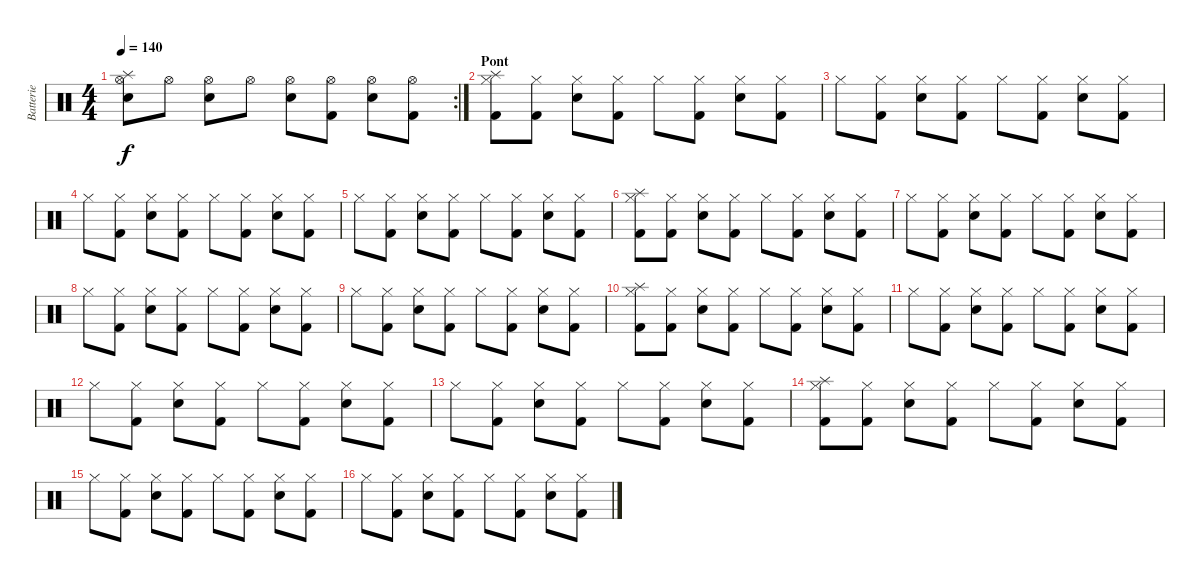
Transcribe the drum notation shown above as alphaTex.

\track ("Batterie" "Batterie") {instrument percussion}
\staff {score}
\articulation defaults
\rc 2
\ts (4 4)
\tempo 140
\clef neutral
\ks c
("Splash (hit)" "Hi-Hat (open)" "Snare (hit) 2").8{dy f} "Hi-Hat (open)".8 ("Hi-Hat (open)" "Snare (hit) 2").8 "Hi-Hat (open)".8 ("Hi-Hat (open)" "Snare (hit) 2").8 ("Hi-Hat (open)" "Kick (hit) 2").8 ("Hi-Hat (open)" "Snare (hit) 2").8 ("Hi-Hat (open)" "Kick (hit) 2").8 |
\section ("" "Pont")
("Splash (hit)" "Hi-Hat (closed)" "Kick (hit) 2").8 ("Hi-Hat (closed)" "Kick (hit) 2").8 ("Hi-Hat (closed)" "Snare (hit) 2").8 ("Hi-Hat (closed)" "Kick (hit) 2").8 "Hi-Hat (closed)".8 ("Hi-Hat (closed)" "Kick (hit) 2").8 ("Hi-Hat (closed)" "Snare (hit) 2").8 ("Hi-Hat (closed)" "Kick (hit) 2").8 |
"Hi-Hat (closed)".8 ("Hi-Hat (closed)" "Kick (hit) 2").8 ("Hi-Hat (closed)" "Snare (hit) 2").8 ("Hi-Hat (closed)" "Kick (hit) 2").8 "Hi-Hat (closed)".8 ("Hi-Hat (closed)" "Kick (hit) 2").8 ("Hi-Hat (closed)" "Snare (hit) 2").8 ("Hi-Hat (closed)" "Kick (hit) 2").8 |
"Hi-Hat (closed)".8 ("Hi-Hat (closed)" "Kick (hit) 2").8 ("Hi-Hat (closed)" "Snare (hit) 2").8 ("Hi-Hat (closed)" "Kick (hit) 2").8 "Hi-Hat (closed)".8 ("Hi-Hat (closed)" "Kick (hit) 2").8 ("Hi-Hat (closed)" "Snare (hit) 2").8 ("Hi-Hat (closed)" "Kick (hit) 2").8 |
"Hi-Hat (closed)".8 ("Hi-Hat (closed)" "Kick (hit) 2").8 ("Hi-Hat (closed)" "Snare (hit) 2").8 ("Hi-Hat (closed)" "Kick (hit) 2").8 "Hi-Hat (closed)".8 ("Hi-Hat (closed)" "Kick (hit) 2").8 ("Hi-Hat (closed)" "Snare (hit) 2").8 ("Hi-Hat (closed)" "Kick (hit) 2").8 |
("Splash (hit)" "Hi-Hat (closed)" "Kick (hit) 2").8 ("Hi-Hat (closed)" "Kick (hit) 2").8 ("Hi-Hat (closed)" "Snare (hit) 2").8 ("Hi-Hat (closed)" "Kick (hit) 2").8 "Hi-Hat (closed)".8 ("Hi-Hat (closed)" "Kick (hit) 2").8 ("Hi-Hat (closed)" "Snare (hit) 2").8 ("Hi-Hat (closed)" "Kick (hit) 2").8 |
"Hi-Hat (closed)".8 ("Hi-Hat (closed)" "Kick (hit) 2").8 ("Hi-Hat (closed)" "Snare (hit) 2").8 ("Hi-Hat (closed)" "Kick (hit) 2").8 "Hi-Hat (closed)".8 ("Hi-Hat (closed)" "Kick (hit) 2").8 ("Hi-Hat (closed)" "Snare (hit) 2").8 ("Hi-Hat (closed)" "Kick (hit) 2").8 |
"Hi-Hat (closed)".8 ("Hi-Hat (closed)" "Kick (hit) 2").8 ("Hi-Hat (closed)" "Snare (hit) 2").8 ("Hi-Hat (closed)" "Kick (hit) 2").8 "Hi-Hat (closed)".8 ("Hi-Hat (closed)" "Kick (hit) 2").8 ("Hi-Hat (closed)" "Snare (hit) 2").8 ("Hi-Hat (closed)" "Kick (hit) 2").8 |
"Hi-Hat (closed)".8 ("Hi-Hat (closed)" "Kick (hit) 2").8 ("Hi-Hat (closed)" "Snare (hit) 2").8 ("Hi-Hat (closed)" "Kick (hit) 2").8 "Hi-Hat (closed)".8 ("Hi-Hat (closed)" "Kick (hit) 2").8 ("Hi-Hat (closed)" "Snare (hit) 2").8 ("Hi-Hat (closed)" "Kick (hit) 2").8 |
("Splash (hit)" "Hi-Hat (closed)" "Kick (hit) 2").8 ("Hi-Hat (closed)" "Kick (hit) 2").8 ("Hi-Hat (closed)" "Snare (hit) 2").8 ("Hi-Hat (closed)" "Kick (hit) 2").8 "Hi-Hat (closed)".8 ("Hi-Hat (closed)" "Kick (hit) 2").8 ("Hi-Hat (closed)" "Snare (hit) 2").8 ("Hi-Hat (closed)" "Kick (hit) 2").8 |
"Hi-Hat (closed)".8 ("Hi-Hat (closed)" "Kick (hit) 2").8 ("Hi-Hat (closed)" "Snare (hit) 2").8 ("Hi-Hat (closed)" "Kick (hit) 2").8 "Hi-Hat (closed)".8 ("Hi-Hat (closed)" "Kick (hit) 2").8 ("Hi-Hat (closed)" "Snare (hit) 2").8 ("Hi-Hat (closed)" "Kick (hit) 2").8 |
"Hi-Hat (closed)".8 ("Hi-Hat (closed)" "Kick (hit) 2").8 ("Hi-Hat (closed)" "Snare (hit) 2").8 ("Hi-Hat (closed)" "Kick (hit) 2").8 "Hi-Hat (closed)".8 ("Hi-Hat (closed)" "Kick (hit) 2").8 ("Hi-Hat (closed)" "Snare (hit) 2").8 ("Hi-Hat (closed)" "Kick (hit) 2").8 |
"Hi-Hat (closed)".8 ("Hi-Hat (closed)" "Kick (hit) 2").8 ("Hi-Hat (closed)" "Snare (hit) 2").8 ("Hi-Hat (closed)" "Kick (hit) 2").8 "Hi-Hat (closed)".8 ("Hi-Hat (closed)" "Kick (hit) 2").8 ("Hi-Hat (closed)" "Snare (hit) 2").8 ("Hi-Hat (closed)" "Kick (hit) 2").8 |
("Splash (hit)" "Hi-Hat (closed)" "Kick (hit) 2").8 ("Hi-Hat (closed)" "Kick (hit) 2").8 ("Hi-Hat (closed)" "Snare (hit) 2").8 ("Hi-Hat (closed)" "Kick (hit) 2").8 "Hi-Hat (closed)".8 ("Hi-Hat (closed)" "Kick (hit) 2").8 ("Hi-Hat (closed)" "Snare (hit) 2").8 ("Hi-Hat (closed)" "Kick (hit) 2").8 |
"Hi-Hat (closed)".8 ("Hi-Hat (closed)" "Kick (hit) 2").8 ("Hi-Hat (closed)" "Snare (hit) 2").8 ("Hi-Hat (closed)" "Kick (hit) 2").8 "Hi-Hat (closed)".8 ("Hi-Hat (closed)" "Kick (hit) 2").8 ("Hi-Hat (closed)" "Snare (hit) 2").8 ("Hi-Hat (closed)" "Kick (hit) 2").8 |
"Hi-Hat (closed)".8 ("Hi-Hat (closed)" "Kick (hit) 2").8 ("Hi-Hat (closed)" "Snare (hit) 2").8 ("Hi-Hat (closed)" "Kick (hit) 2").8 "Hi-Hat (closed)".8 ("Hi-Hat (closed)" "Kick (hit) 2").8 ("Hi-Hat (closed)" "Snare (hit) 2").8 ("Hi-Hat (closed)" "Kick (hit) 2").8
